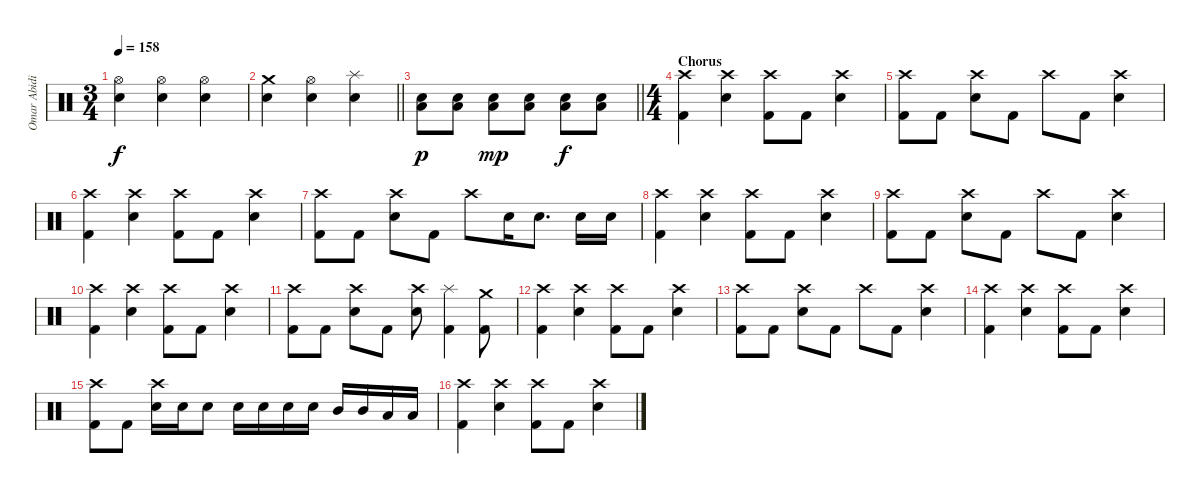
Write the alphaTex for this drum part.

\track ("Omar Abidi" "Omar Abidi") {instrument percussion}
\staff {score}
\articulation defaults
\ts (3 4)
\tempo 158
\clef neutral
\ks c
("Hi-Hat (open)" "Snare (hit) 2").4{dy f} ("Hi-Hat (open)" "Snare (hit) 2").4 ("Hi-Hat (open)" "Snare (hit) 2").4 |
\barLineRight lightlight
("Crash medium (hit)" "Snare (hit) 2").4 ("Hi-Hat (open)" "Snare (hit) 2").4 ("Splash (hit)" "Snare (hit) 2").4{volume 9} |
\barLineRight lightlight
("Snare (hit) 2" "Low Tom (hit)").8{dy p volume 16} ("Snare (hit) 2" "Low Tom (hit)").8 ("Snare (hit) 2" "Low Tom (hit)").8{dy mp} ("Snare (hit) 2" "Low Tom (hit)").8 ("Snare (hit) 2" "Low Tom (hit)").8{dy f} ("Snare (hit) 2" "Low Tom (hit)").8 |
\ts (4 4)
\section ("" "Chorus")
("Crash high (hit)" "Kick (hit) 2").4 ("Crash high (hit)" "Snare (hit) 2").4 ("Crash high (hit)" "Kick (hit) 2").8 "Kick (hit) 2".8 ("Crash high (hit)" "Snare (hit) 2").4 |
("Crash high (hit)" "Kick (hit) 2").8 "Kick (hit) 2".8 ("Crash high (hit)" "Snare (hit) 2").8 "Kick (hit) 2".8 "Crash high (hit)".8 "Kick (hit) 2".8 ("Crash high (hit)" "Snare (hit) 2").4 |
("Crash high (hit)" "Kick (hit) 2").4 ("Crash high (hit)" "Snare (hit) 2").4 ("Crash high (hit)" "Kick (hit) 2").8 "Kick (hit) 2".8 ("Crash high (hit)" "Snare (hit) 2").4 |
("Crash high (hit)" "Kick (hit) 2").8 "Kick (hit) 2".8 ("Crash high (hit)" "Snare (hit) 2").8 "Kick (hit) 2".8 "Crash high (hit)".8 "Snare (hit) 2".16 "Snare (hit) 2".8{d} "Snare (hit) 2".16 "Snare (hit) 2".16 |
("Crash high (hit)" "Kick (hit) 2").4 ("Crash high (hit)" "Snare (hit) 2").4 ("Crash high (hit)" "Kick (hit) 2").8 "Kick (hit) 2".8 ("Crash high (hit)" "Snare (hit) 2").4 |
("Crash high (hit)" "Kick (hit) 2").8 "Kick (hit) 2".8 ("Crash high (hit)" "Snare (hit) 2").8 "Kick (hit) 2".8 "Crash high (hit)".8 "Kick (hit) 2".8 ("Crash high (hit)" "Snare (hit) 2").4 |
("Crash high (hit)" "Kick (hit) 2").4 ("Crash high (hit)" "Snare (hit) 2").4 ("Crash high (hit)" "Kick (hit) 2").8 "Kick (hit) 2".8 ("Crash high (hit)" "Snare (hit) 2").4 |
("Crash high (hit)" "Kick (hit) 2").8 "Kick (hit) 2".8 ("Crash high (hit)" "Snare (hit) 2").8 "Kick (hit) 2".8 ("Crash high (hit)" "Snare (hit) 2").8 ("Splash (hit)" "Kick (hit) 2").4 ("Crash medium (hit)" "Kick (hit) 2").8 |
("Crash high (hit)" "Kick (hit) 2").4 ("Crash high (hit)" "Snare (hit) 2").4 ("Crash high (hit)" "Kick (hit) 2").8 "Kick (hit) 2".8 ("Crash high (hit)" "Snare (hit) 2").4 |
("Crash high (hit)" "Kick (hit) 2").8 "Kick (hit) 2".8 ("Crash high (hit)" "Snare (hit) 2").8 "Kick (hit) 2".8 "Crash high (hit)".8 "Kick (hit) 2".8 ("Crash high (hit)" "Snare (hit) 2").4 |
("Crash high (hit)" "Kick (hit) 2").4 ("Crash high (hit)" "Snare (hit) 2").4 ("Crash high (hit)" "Kick (hit) 2").8 "Kick (hit) 2".8 ("Crash high (hit)" "Snare (hit) 2").4 |
("Crash high (hit)" "Kick (hit) 2").8 "Kick (hit) 2".8 ("Crash high (hit)" "Snare (hit) 2").16 "Snare (hit) 2".16 "Snare (hit) 2".8 "Snare (hit) 2".16 "Snare (hit) 2".16 "Snare (hit) 2".16 "Snare (hit) 2".16 "Mid Tom (hit)".16 "Mid Tom (hit)".16 "Low Tom (hit)".16 "Low Tom (hit)".16 |
("Crash high (hit)" "Kick (hit) 2").4 ("Crash high (hit)" "Snare (hit) 2").4 ("Crash high (hit)" "Kick (hit) 2").8 "Kick (hit) 2".8 ("Crash high (hit)" "Snare (hit) 2").4
